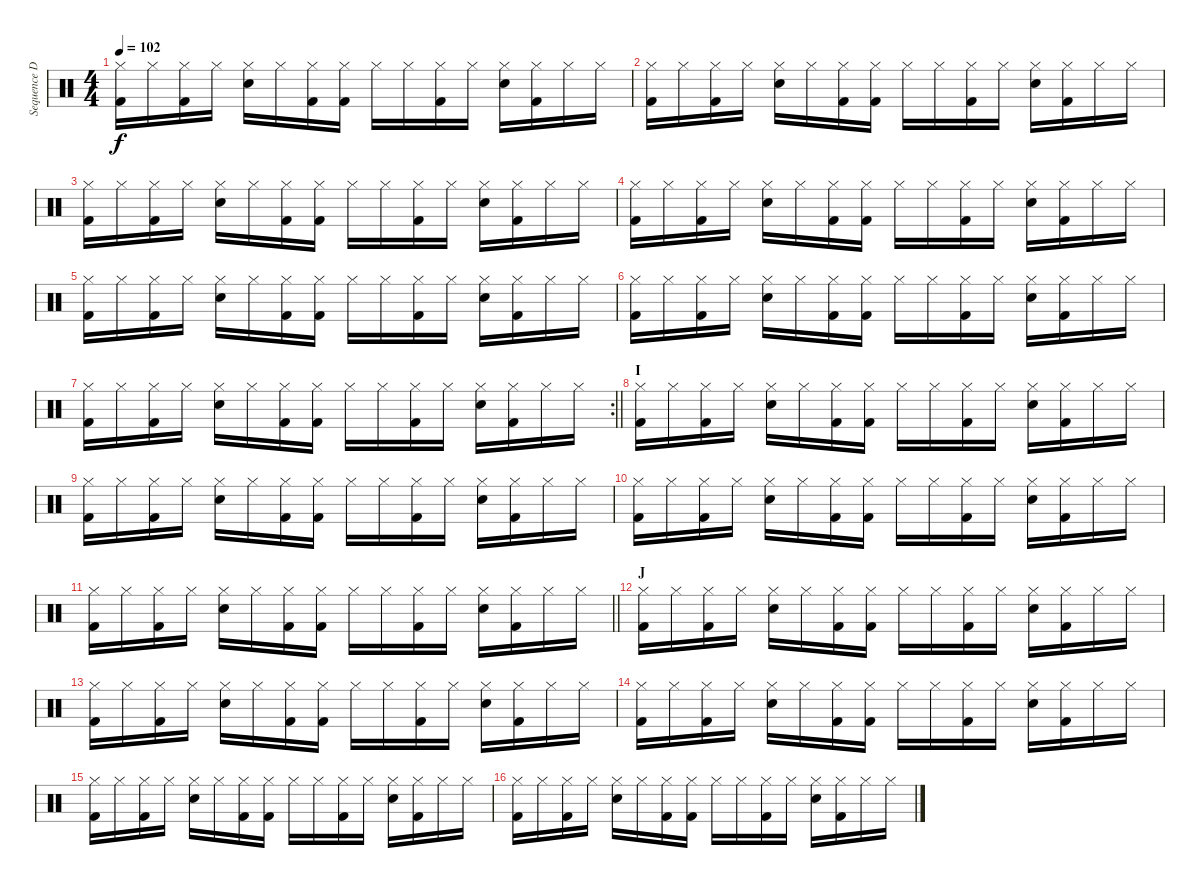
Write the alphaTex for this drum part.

\track ("Sequence Drums" "Sequence D") {instrument percussion}
\staff {score}
\articulation defaults
\ts (4 4)
\tempo 102
\clef neutral
\ks c
("Hi-Hat (closed)" "Kick (hit) 2").16{dy f} "Hi-Hat (closed)".16 ("Hi-Hat (closed)" "Kick (hit) 2").16 "Hi-Hat (closed)".16 ("Hi-Hat (closed)" "Electric Snare (hit)").16 "Hi-Hat (closed)".16 ("Hi-Hat (closed)" "Kick (hit) 2").16 ("Hi-Hat (closed)" "Kick (hit) 2").16 "Hi-Hat (closed)".16 "Hi-Hat (closed)".16 ("Hi-Hat (closed)" "Kick (hit) 2").16 "Hi-Hat (closed)".16 ("Hi-Hat (closed)" "Electric Snare (hit)").16 ("Hi-Hat (closed)" "Kick (hit) 2").16 "Hi-Hat (closed)".16 "Hi-Hat (closed)".16 |
("Hi-Hat (closed)" "Kick (hit) 2").16 "Hi-Hat (closed)".16 ("Hi-Hat (closed)" "Kick (hit) 2").16 "Hi-Hat (closed)".16 ("Hi-Hat (closed)" "Electric Snare (hit)").16 "Hi-Hat (closed)".16 ("Hi-Hat (closed)" "Kick (hit) 2").16 ("Hi-Hat (closed)" "Kick (hit) 2").16 "Hi-Hat (closed)".16 "Hi-Hat (closed)".16 ("Hi-Hat (closed)" "Kick (hit) 2").16 "Hi-Hat (closed)".16 ("Hi-Hat (closed)" "Electric Snare (hit)").16 ("Hi-Hat (closed)" "Kick (hit) 2").16 "Hi-Hat (closed)".16 "Hi-Hat (closed)".16 |
("Hi-Hat (closed)" "Kick (hit) 2").16 "Hi-Hat (closed)".16 ("Hi-Hat (closed)" "Kick (hit) 2").16 "Hi-Hat (closed)".16 ("Hi-Hat (closed)" "Electric Snare (hit)").16 "Hi-Hat (closed)".16 ("Hi-Hat (closed)" "Kick (hit) 2").16 ("Hi-Hat (closed)" "Kick (hit) 2").16 "Hi-Hat (closed)".16 "Hi-Hat (closed)".16 ("Hi-Hat (closed)" "Kick (hit) 2").16 "Hi-Hat (closed)".16 ("Hi-Hat (closed)" "Electric Snare (hit)").16 ("Hi-Hat (closed)" "Kick (hit) 2").16 "Hi-Hat (closed)".16 "Hi-Hat (closed)".16 |
("Hi-Hat (closed)" "Kick (hit) 2").16 "Hi-Hat (closed)".16 ("Hi-Hat (closed)" "Kick (hit) 2").16 "Hi-Hat (closed)".16 ("Hi-Hat (closed)" "Electric Snare (hit)").16 "Hi-Hat (closed)".16 ("Hi-Hat (closed)" "Kick (hit) 2").16 ("Hi-Hat (closed)" "Kick (hit) 2").16 "Hi-Hat (closed)".16 "Hi-Hat (closed)".16 ("Hi-Hat (closed)" "Kick (hit) 2").16 "Hi-Hat (closed)".16 ("Hi-Hat (closed)" "Electric Snare (hit)").16 ("Hi-Hat (closed)" "Kick (hit) 2").16 "Hi-Hat (closed)".16 "Hi-Hat (closed)".16 |
("Hi-Hat (closed)" "Kick (hit) 2").16 "Hi-Hat (closed)".16 ("Hi-Hat (closed)" "Kick (hit) 2").16 "Hi-Hat (closed)".16 ("Hi-Hat (closed)" "Electric Snare (hit)").16 "Hi-Hat (closed)".16 ("Hi-Hat (closed)" "Kick (hit) 2").16 ("Hi-Hat (closed)" "Kick (hit) 2").16 "Hi-Hat (closed)".16 "Hi-Hat (closed)".16 ("Hi-Hat (closed)" "Kick (hit) 2").16 "Hi-Hat (closed)".16 ("Hi-Hat (closed)" "Electric Snare (hit)").16 ("Hi-Hat (closed)" "Kick (hit) 2").16 "Hi-Hat (closed)".16 "Hi-Hat (closed)".16 |
("Hi-Hat (closed)" "Kick (hit) 2").16 "Hi-Hat (closed)".16 ("Hi-Hat (closed)" "Kick (hit) 2").16 "Hi-Hat (closed)".16 ("Hi-Hat (closed)" "Electric Snare (hit)").16 "Hi-Hat (closed)".16 ("Hi-Hat (closed)" "Kick (hit) 2").16 ("Hi-Hat (closed)" "Kick (hit) 2").16 "Hi-Hat (closed)".16 "Hi-Hat (closed)".16 ("Hi-Hat (closed)" "Kick (hit) 2").16 "Hi-Hat (closed)".16 ("Hi-Hat (closed)" "Electric Snare (hit)").16 ("Hi-Hat (closed)" "Kick (hit) 2").16 "Hi-Hat (closed)".16 "Hi-Hat (closed)".16 |
\rc 2
\barLineRight lightlight
("Hi-Hat (closed)" "Kick (hit) 2").16 "Hi-Hat (closed)".16 ("Hi-Hat (closed)" "Kick (hit) 2").16 "Hi-Hat (closed)".16 ("Hi-Hat (closed)" "Electric Snare (hit)").16 "Hi-Hat (closed)".16 ("Hi-Hat (closed)" "Kick (hit) 2").16 ("Hi-Hat (closed)" "Kick (hit) 2").16 "Hi-Hat (closed)".16 "Hi-Hat (closed)".16 ("Hi-Hat (closed)" "Kick (hit) 2").16 "Hi-Hat (closed)".16 ("Hi-Hat (closed)" "Electric Snare (hit)").16 ("Hi-Hat (closed)" "Kick (hit) 2").16 "Hi-Hat (closed)".16 "Hi-Hat (closed)".16 |
\section ("" "I")
("Hi-Hat (closed)" "Kick (hit) 2").16 "Hi-Hat (closed)".16 ("Hi-Hat (closed)" "Kick (hit) 2").16 "Hi-Hat (closed)".16 ("Hi-Hat (closed)" "Electric Snare (hit)").16 "Hi-Hat (closed)".16 ("Hi-Hat (closed)" "Kick (hit) 2").16 ("Hi-Hat (closed)" "Kick (hit) 2").16 "Hi-Hat (closed)".16 "Hi-Hat (closed)".16 ("Hi-Hat (closed)" "Kick (hit) 2").16 "Hi-Hat (closed)".16 ("Hi-Hat (closed)" "Electric Snare (hit)").16 ("Hi-Hat (closed)" "Kick (hit) 2").16 "Hi-Hat (closed)".16 "Hi-Hat (closed)".16 |
("Hi-Hat (closed)" "Kick (hit) 2").16 "Hi-Hat (closed)".16 ("Hi-Hat (closed)" "Kick (hit) 2").16 "Hi-Hat (closed)".16 ("Hi-Hat (closed)" "Electric Snare (hit)").16 "Hi-Hat (closed)".16 ("Hi-Hat (closed)" "Kick (hit) 2").16 ("Hi-Hat (closed)" "Kick (hit) 2").16 "Hi-Hat (closed)".16 "Hi-Hat (closed)".16 ("Hi-Hat (closed)" "Kick (hit) 2").16 "Hi-Hat (closed)".16 ("Hi-Hat (closed)" "Electric Snare (hit)").16 ("Hi-Hat (closed)" "Kick (hit) 2").16 "Hi-Hat (closed)".16 "Hi-Hat (closed)".16 |
("Hi-Hat (closed)" "Kick (hit) 2").16 "Hi-Hat (closed)".16 ("Hi-Hat (closed)" "Kick (hit) 2").16 "Hi-Hat (closed)".16 ("Hi-Hat (closed)" "Electric Snare (hit)").16 "Hi-Hat (closed)".16 ("Hi-Hat (closed)" "Kick (hit) 2").16 ("Hi-Hat (closed)" "Kick (hit) 2").16 "Hi-Hat (closed)".16 "Hi-Hat (closed)".16 ("Hi-Hat (closed)" "Kick (hit) 2").16 "Hi-Hat (closed)".16 ("Hi-Hat (closed)" "Electric Snare (hit)").16 ("Hi-Hat (closed)" "Kick (hit) 2").16 "Hi-Hat (closed)".16 "Hi-Hat (closed)".16 |
\barLineRight lightlight
("Hi-Hat (closed)" "Kick (hit) 2").16 "Hi-Hat (closed)".16 ("Hi-Hat (closed)" "Kick (hit) 2").16 "Hi-Hat (closed)".16 ("Hi-Hat (closed)" "Electric Snare (hit)").16 "Hi-Hat (closed)".16 ("Hi-Hat (closed)" "Kick (hit) 2").16 ("Hi-Hat (closed)" "Kick (hit) 2").16 "Hi-Hat (closed)".16 "Hi-Hat (closed)".16 ("Hi-Hat (closed)" "Kick (hit) 2").16 "Hi-Hat (closed)".16 ("Hi-Hat (closed)" "Electric Snare (hit)").16 ("Hi-Hat (closed)" "Kick (hit) 2").16 "Hi-Hat (closed)".16 "Hi-Hat (closed)".16 |
\section ("" "J")
("Hi-Hat (closed)" "Kick (hit) 2").16 "Hi-Hat (closed)".16 ("Hi-Hat (closed)" "Kick (hit) 2").16 "Hi-Hat (closed)".16 ("Hi-Hat (closed)" "Electric Snare (hit)").16 "Hi-Hat (closed)".16 ("Hi-Hat (closed)" "Kick (hit) 2").16 ("Hi-Hat (closed)" "Kick (hit) 2").16 "Hi-Hat (closed)".16 "Hi-Hat (closed)".16 ("Hi-Hat (closed)" "Kick (hit) 2").16 "Hi-Hat (closed)".16 ("Hi-Hat (closed)" "Electric Snare (hit)").16 ("Hi-Hat (closed)" "Kick (hit) 2").16 "Hi-Hat (closed)".16 "Hi-Hat (closed)".16 |
("Hi-Hat (closed)" "Kick (hit) 2").16 "Hi-Hat (closed)".16 ("Hi-Hat (closed)" "Kick (hit) 2").16 "Hi-Hat (closed)".16 ("Hi-Hat (closed)" "Electric Snare (hit)").16 "Hi-Hat (closed)".16 ("Hi-Hat (closed)" "Kick (hit) 2").16 ("Hi-Hat (closed)" "Kick (hit) 2").16 "Hi-Hat (closed)".16 "Hi-Hat (closed)".16 ("Hi-Hat (closed)" "Kick (hit) 2").16 "Hi-Hat (closed)".16 ("Hi-Hat (closed)" "Electric Snare (hit)").16 ("Hi-Hat (closed)" "Kick (hit) 2").16 "Hi-Hat (closed)".16 "Hi-Hat (closed)".16 |
("Hi-Hat (closed)" "Kick (hit) 2").16 "Hi-Hat (closed)".16 ("Hi-Hat (closed)" "Kick (hit) 2").16 "Hi-Hat (closed)".16 ("Hi-Hat (closed)" "Electric Snare (hit)").16 "Hi-Hat (closed)".16 ("Hi-Hat (closed)" "Kick (hit) 2").16 ("Hi-Hat (closed)" "Kick (hit) 2").16 "Hi-Hat (closed)".16 "Hi-Hat (closed)".16 ("Hi-Hat (closed)" "Kick (hit) 2").16 "Hi-Hat (closed)".16 ("Hi-Hat (closed)" "Electric Snare (hit)").16 ("Hi-Hat (closed)" "Kick (hit) 2").16 "Hi-Hat (closed)".16 "Hi-Hat (closed)".16 |
("Hi-Hat (closed)" "Kick (hit) 2").16 "Hi-Hat (closed)".16 ("Hi-Hat (closed)" "Kick (hit) 2").16 "Hi-Hat (closed)".16 ("Hi-Hat (closed)" "Electric Snare (hit)").16 "Hi-Hat (closed)".16 ("Hi-Hat (closed)" "Kick (hit) 2").16 ("Hi-Hat (closed)" "Kick (hit) 2").16 "Hi-Hat (closed)".16 "Hi-Hat (closed)".16 ("Hi-Hat (closed)" "Kick (hit) 2").16 "Hi-Hat (closed)".16 ("Hi-Hat (closed)" "Electric Snare (hit)").16 ("Hi-Hat (closed)" "Kick (hit) 2").16 "Hi-Hat (closed)".16 "Hi-Hat (closed)".16 |
("Hi-Hat (closed)" "Kick (hit) 2").16 "Hi-Hat (closed)".16 ("Hi-Hat (closed)" "Kick (hit) 2").16 "Hi-Hat (closed)".16 ("Hi-Hat (closed)" "Electric Snare (hit)").16 "Hi-Hat (closed)".16 ("Hi-Hat (closed)" "Kick (hit) 2").16 ("Hi-Hat (closed)" "Kick (hit) 2").16 "Hi-Hat (closed)".16 "Hi-Hat (closed)".16 ("Hi-Hat (closed)" "Kick (hit) 2").16 "Hi-Hat (closed)".16 ("Hi-Hat (closed)" "Electric Snare (hit)").16 ("Hi-Hat (closed)" "Kick (hit) 2").16 "Hi-Hat (closed)".16 "Hi-Hat (closed)".16
